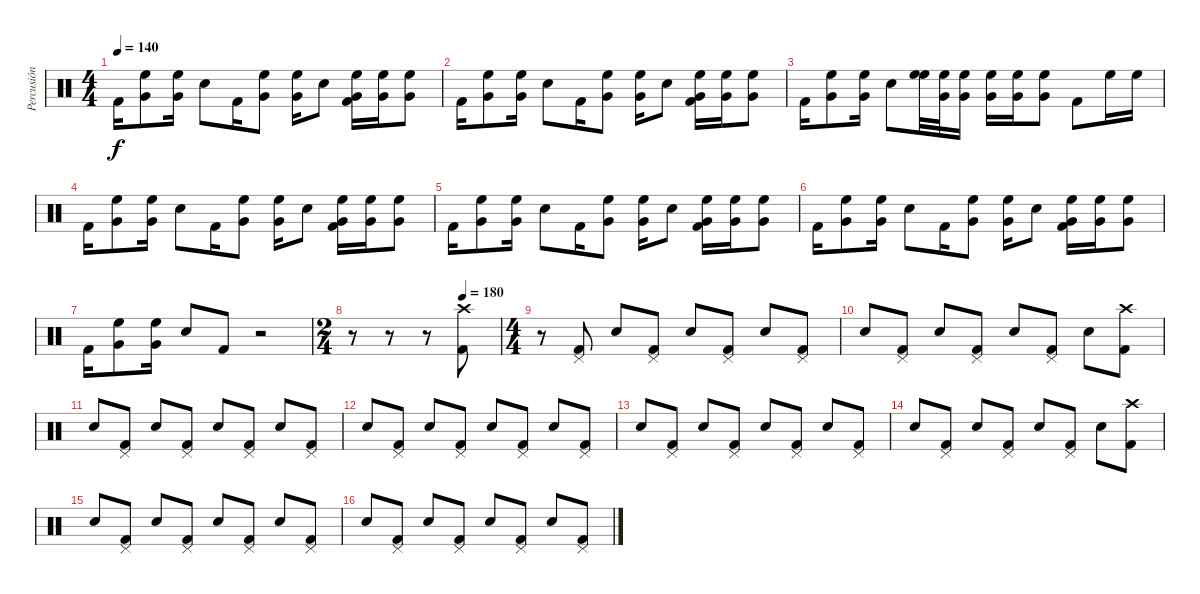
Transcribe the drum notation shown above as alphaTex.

\track ("Percusión" "Percusión") {instrument percussion}
\staff {score}
\articulation defaults
\ts (4 4)
\tempo 140
\clef neutral
\ks c "Kick (hit) 2".16{dy f}
("Very Low Tom (hit)" "High Floor Tom (hit)").8 ("Very Low Tom (hit)" "High Floor Tom (hit)").16 "Electric Snare (hit)".8 "Kick (hit) 2".16 ("Very Low Tom (hit)" "High Floor Tom (hit)").8 ("Very Low Tom (hit)" "High Floor Tom (hit)").16 "Electric Snare (hit)".8 ("Very Low Tom (hit)" "High Floor Tom (hit)" "Kick (hit) 2").16 ("Very Low Tom (hit)" "High Floor Tom (hit)").16 ("Very Low Tom (hit)" "High Floor Tom (hit)").8 |
"Kick (hit) 2".16 ("Very Low Tom (hit)" "High Floor Tom (hit)").8 ("Very Low Tom (hit)" "High Floor Tom (hit)").16 "Electric Snare (hit)".8 "Kick (hit) 2".16 ("Very Low Tom (hit)" "High Floor Tom (hit)").8 ("Very Low Tom (hit)" "High Floor Tom (hit)").16 "Electric Snare (hit)".8 ("Very Low Tom (hit)" "High Floor Tom (hit)" "Kick (hit) 2").16 ("Very Low Tom (hit)" "High Floor Tom (hit)").16 ("Very Low Tom (hit)" "High Floor Tom (hit)").8 |
"Kick (hit) 2".16 ("Very Low Tom (hit)" "High Floor Tom (hit)").8 ("Very Low Tom (hit)" "High Floor Tom (hit)").16 "Electric Snare (hit)".8 ("High Floor Tom (hit)" "High Floor Tom (hit)").32 ("Very Low Tom (hit)" "High Floor Tom (hit)").32 ("Very Low Tom (hit)" "High Floor Tom (hit)").16 ("Very Low Tom (hit)" "High Floor Tom (hit)").16 ("Very Low Tom (hit)" "High Floor Tom (hit)").16 ("Very Low Tom (hit)" "High Floor Tom (hit)").8 "Kick (hit) 2".8 "High Floor Tom (hit)".16 "High Floor Tom (hit)".16 |
"Kick (hit) 2".16 ("Very Low Tom (hit)" "High Floor Tom (hit)").8 ("Very Low Tom (hit)" "High Floor Tom (hit)").16 "Electric Snare (hit)".8 "Kick (hit) 2".16 ("Very Low Tom (hit)" "High Floor Tom (hit)").8 ("Very Low Tom (hit)" "High Floor Tom (hit)").16 "Electric Snare (hit)".8 ("Very Low Tom (hit)" "High Floor Tom (hit)" "Kick (hit) 2").16 ("Very Low Tom (hit)" "High Floor Tom (hit)").16 ("Very Low Tom (hit)" "High Floor Tom (hit)").8 |
"Kick (hit) 2".16 ("Very Low Tom (hit)" "High Floor Tom (hit)").8 ("Very Low Tom (hit)" "High Floor Tom (hit)").16 "Electric Snare (hit)".8 "Kick (hit) 2".16 ("Very Low Tom (hit)" "High Floor Tom (hit)").8 ("Very Low Tom (hit)" "High Floor Tom (hit)").16 "Electric Snare (hit)".8 ("Very Low Tom (hit)" "High Floor Tom (hit)" "Kick (hit) 2").16 ("Very Low Tom (hit)" "High Floor Tom (hit)").16 ("Very Low Tom (hit)" "High Floor Tom (hit)").8 |
"Kick (hit) 2".16 ("Very Low Tom (hit)" "High Floor Tom (hit)").8 ("Very Low Tom (hit)" "High Floor Tom (hit)").16 "Electric Snare (hit)".8 "Kick (hit) 2".16 ("Very Low Tom (hit)" "High Floor Tom (hit)").8 ("Very Low Tom (hit)" "High Floor Tom (hit)").16 "Electric Snare (hit)".8 ("Very Low Tom (hit)" "High Floor Tom (hit)" "Kick (hit) 2").16 ("Very Low Tom (hit)" "High Floor Tom (hit)").16 ("Very Low Tom (hit)" "High Floor Tom (hit)").8 |
"Kick (hit) 2".16 ("Very Low Tom (hit)" "High Floor Tom (hit)").8 ("Very Low Tom (hit)" "High Floor Tom (hit)").16 "Electric Snare (hit)".8 "Kick (hit) 2".8 r.2 |
\ts (2 4)
\tempo (180 0.75)
r.8 r.8 r.8 ("Crash high (hit)" "Kick (hit) 2").8 |
\ts (4 4)
r.8 ("Pedal Hi-Hat (hit)" "Kick (hit) 2").8 "Electric Snare (hit)".8 ("Pedal Hi-Hat (hit)" "Kick (hit) 2").8 "Electric Snare (hit)".8 ("Pedal Hi-Hat (hit)" "Kick (hit) 2").8 "Electric Snare (hit)".8 ("Pedal Hi-Hat (hit)" "Kick (hit) 2").8 |
"Electric Snare (hit)".8 ("Pedal Hi-Hat (hit)" "Kick (hit) 2").8 "Electric Snare (hit)".8 ("Pedal Hi-Hat (hit)" "Kick (hit) 2").8 "Electric Snare (hit)".8 ("Pedal Hi-Hat (hit)" "Kick (hit) 2").8 "Electric Snare (hit)".8 ("Crash high (hit)" "Kick (hit) 2").8 |
"Electric Snare (hit)".8 ("Pedal Hi-Hat (hit)" "Kick (hit) 2").8 "Electric Snare (hit)".8 ("Pedal Hi-Hat (hit)" "Kick (hit) 2").8 "Electric Snare (hit)".8 ("Pedal Hi-Hat (hit)" "Kick (hit) 2").8 "Electric Snare (hit)".8 ("Pedal Hi-Hat (hit)" "Kick (hit) 2").8 |
"Electric Snare (hit)".8 ("Pedal Hi-Hat (hit)" "Kick (hit) 2").8 "Electric Snare (hit)".8 ("Pedal Hi-Hat (hit)" "Kick (hit) 2").8 "Electric Snare (hit)".8 ("Pedal Hi-Hat (hit)" "Kick (hit) 2").8 "Electric Snare (hit)".8 ("Pedal Hi-Hat (hit)" "Kick (hit) 2").8 |
"Electric Snare (hit)".8 ("Pedal Hi-Hat (hit)" "Kick (hit) 2").8 "Electric Snare (hit)".8 ("Pedal Hi-Hat (hit)" "Kick (hit) 2").8 "Electric Snare (hit)".8 ("Pedal Hi-Hat (hit)" "Kick (hit) 2").8 "Electric Snare (hit)".8 ("Pedal Hi-Hat (hit)" "Kick (hit) 2").8 |
"Electric Snare (hit)".8 ("Pedal Hi-Hat (hit)" "Kick (hit) 2").8 "Electric Snare (hit)".8 ("Pedal Hi-Hat (hit)" "Kick (hit) 2").8 "Electric Snare (hit)".8 ("Pedal Hi-Hat (hit)" "Kick (hit) 2").8 "Electric Snare (hit)".8 ("Crash high (hit)" "Kick (hit) 2").8 |
"Electric Snare (hit)".8 ("Pedal Hi-Hat (hit)" "Kick (hit) 2").8 "Electric Snare (hit)".8 ("Pedal Hi-Hat (hit)" "Kick (hit) 2").8 "Electric Snare (hit)".8 ("Pedal Hi-Hat (hit)" "Kick (hit) 2").8 "Electric Snare (hit)".8 ("Pedal Hi-Hat (hit)" "Kick (hit) 2").8 |
"Electric Snare (hit)".8 ("Pedal Hi-Hat (hit)" "Kick (hit) 2").8 "Electric Snare (hit)".8 ("Pedal Hi-Hat (hit)" "Kick (hit) 2").8 "Electric Snare (hit)".8 ("Pedal Hi-Hat (hit)" "Kick (hit) 2").8 "Electric Snare (hit)".8 ("Pedal Hi-Hat (hit)" "Kick (hit) 2").8
